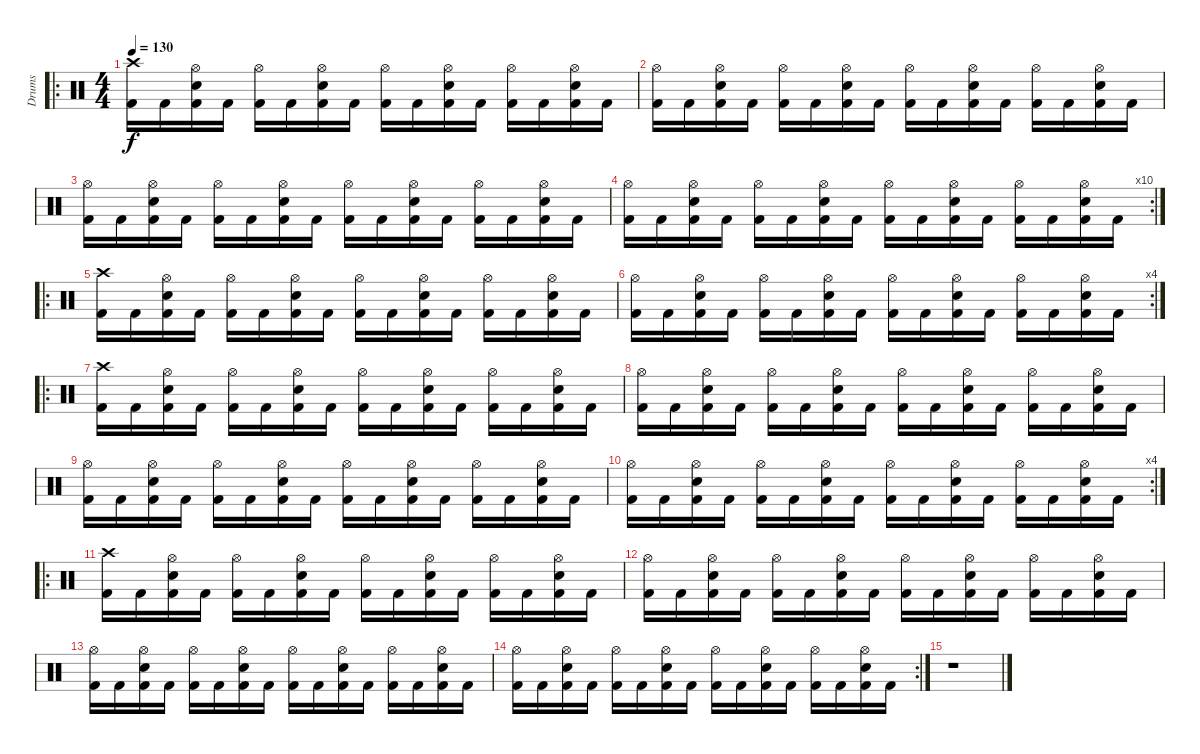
\track ("Drums" "Drums") {instrument percussion}
\staff {score}
\articulation defaults
\ro
\ts (4 4)
\tempo 130
\clef neutral
\ks c
("Kick (hit) 2" "Crash high (hit)").16{dy f} "Kick (hit) 2".16 ("Kick (hit) 2" "Hi-Hat (open)" "Snare (hit) 2").16 "Kick (hit) 2".16 ("Kick (hit) 2" "Hi-Hat (open)").16 "Kick (hit) 2".16 ("Kick (hit) 2" "Hi-Hat (open)" "Snare (hit) 2").16 "Kick (hit) 2".16 ("Kick (hit) 2" "Hi-Hat (open)").16 "Kick (hit) 2".16 ("Kick (hit) 2" "Hi-Hat (open)" "Snare (hit) 2").16 "Kick (hit) 2".16 ("Kick (hit) 2" "Hi-Hat (open)").16 "Kick (hit) 2".16 ("Kick (hit) 2" "Hi-Hat (open)" "Snare (hit) 2").16 "Kick (hit) 2".16 |
("Kick (hit) 2" "Hi-Hat (open)").16 "Kick (hit) 2".16 ("Kick (hit) 2" "Hi-Hat (open)" "Snare (hit) 2").16 "Kick (hit) 2".16 ("Kick (hit) 2" "Hi-Hat (open)").16 "Kick (hit) 2".16 ("Kick (hit) 2" "Hi-Hat (open)" "Snare (hit) 2").16 "Kick (hit) 2".16 ("Kick (hit) 2" "Hi-Hat (open)").16 "Kick (hit) 2".16 ("Kick (hit) 2" "Hi-Hat (open)" "Snare (hit) 2").16 "Kick (hit) 2".16 ("Kick (hit) 2" "Hi-Hat (open)").16 "Kick (hit) 2".16 ("Kick (hit) 2" "Hi-Hat (open)" "Snare (hit) 2").16 "Kick (hit) 2".16 |
("Kick (hit) 2" "Hi-Hat (open)").16 "Kick (hit) 2".16 ("Kick (hit) 2" "Hi-Hat (open)" "Snare (hit) 2").16 "Kick (hit) 2".16 ("Kick (hit) 2" "Hi-Hat (open)").16 "Kick (hit) 2".16 ("Kick (hit) 2" "Hi-Hat (open)" "Snare (hit) 2").16 "Kick (hit) 2".16 ("Kick (hit) 2" "Hi-Hat (open)").16 "Kick (hit) 2".16 ("Kick (hit) 2" "Hi-Hat (open)" "Snare (hit) 2").16 "Kick (hit) 2".16 ("Kick (hit) 2" "Hi-Hat (open)").16 "Kick (hit) 2".16 ("Kick (hit) 2" "Hi-Hat (open)" "Snare (hit) 2").16 "Kick (hit) 2".16 |
\rc 10
("Kick (hit) 2" "Hi-Hat (open)").16 "Kick (hit) 2".16 ("Kick (hit) 2" "Hi-Hat (open)" "Snare (hit) 2").16 "Kick (hit) 2".16 ("Kick (hit) 2" "Hi-Hat (open)").16 "Kick (hit) 2".16 ("Kick (hit) 2" "Hi-Hat (open)" "Snare (hit) 2").16 "Kick (hit) 2".16 ("Kick (hit) 2" "Hi-Hat (open)").16 "Kick (hit) 2".16 ("Kick (hit) 2" "Hi-Hat (open)" "Snare (hit) 2").16 "Kick (hit) 2".16 ("Kick (hit) 2" "Hi-Hat (open)").16 "Kick (hit) 2".16 ("Kick (hit) 2" "Hi-Hat (open)" "Snare (hit) 2").16 "Kick (hit) 2".16 |
\ro
("Kick (hit) 2" "Crash high (hit)").16 "Kick (hit) 2".16 ("Kick (hit) 2" "Hi-Hat (open)" "Snare (hit) 2").16 "Kick (hit) 2".16 ("Kick (hit) 2" "Hi-Hat (open)").16 "Kick (hit) 2".16 ("Kick (hit) 2" "Hi-Hat (open)" "Snare (hit) 2").16 "Kick (hit) 2".16 ("Kick (hit) 2" "Hi-Hat (open)").16 "Kick (hit) 2".16 ("Kick (hit) 2" "Hi-Hat (open)" "Snare (hit) 2").16 "Kick (hit) 2".16 ("Kick (hit) 2" "Hi-Hat (open)").16 "Kick (hit) 2".16 ("Kick (hit) 2" "Hi-Hat (open)" "Snare (hit) 2").16 "Kick (hit) 2".16 |
\rc 4
("Kick (hit) 2" "Hi-Hat (open)").16 "Kick (hit) 2".16 ("Kick (hit) 2" "Hi-Hat (open)" "Snare (hit) 2").16 "Kick (hit) 2".16 ("Kick (hit) 2" "Hi-Hat (open)").16 "Kick (hit) 2".16 ("Kick (hit) 2" "Hi-Hat (open)" "Snare (hit) 2").16 "Kick (hit) 2".16 ("Kick (hit) 2" "Hi-Hat (open)").16 "Kick (hit) 2".16 ("Kick (hit) 2" "Hi-Hat (open)" "Snare (hit) 2").16 "Kick (hit) 2".16 ("Kick (hit) 2" "Hi-Hat (open)").16 "Kick (hit) 2".16 ("Kick (hit) 2" "Hi-Hat (open)" "Snare (hit) 2").16 "Kick (hit) 2".16 |
\ro
("Kick (hit) 2" "Crash high (hit)").16 "Kick (hit) 2".16 ("Kick (hit) 2" "Hi-Hat (open)" "Snare (hit) 2").16 "Kick (hit) 2".16 ("Kick (hit) 2" "Hi-Hat (open)").16 "Kick (hit) 2".16 ("Kick (hit) 2" "Hi-Hat (open)" "Snare (hit) 2").16 "Kick (hit) 2".16 ("Kick (hit) 2" "Hi-Hat (open)").16 "Kick (hit) 2".16 ("Kick (hit) 2" "Hi-Hat (open)" "Snare (hit) 2").16 "Kick (hit) 2".16 ("Kick (hit) 2" "Hi-Hat (open)").16 "Kick (hit) 2".16 ("Kick (hit) 2" "Hi-Hat (open)" "Snare (hit) 2").16 "Kick (hit) 2".16 |
("Kick (hit) 2" "Hi-Hat (open)").16 "Kick (hit) 2".16 ("Kick (hit) 2" "Hi-Hat (open)" "Snare (hit) 2").16 "Kick (hit) 2".16 ("Kick (hit) 2" "Hi-Hat (open)").16 "Kick (hit) 2".16 ("Kick (hit) 2" "Hi-Hat (open)" "Snare (hit) 2").16 "Kick (hit) 2".16 ("Kick (hit) 2" "Hi-Hat (open)").16 "Kick (hit) 2".16 ("Kick (hit) 2" "Hi-Hat (open)" "Snare (hit) 2").16 "Kick (hit) 2".16 ("Kick (hit) 2" "Hi-Hat (open)").16 "Kick (hit) 2".16 ("Kick (hit) 2" "Hi-Hat (open)" "Snare (hit) 2").16 "Kick (hit) 2".16 |
("Kick (hit) 2" "Hi-Hat (open)").16 "Kick (hit) 2".16 ("Kick (hit) 2" "Hi-Hat (open)" "Snare (hit) 2").16 "Kick (hit) 2".16 ("Kick (hit) 2" "Hi-Hat (open)").16 "Kick (hit) 2".16 ("Kick (hit) 2" "Hi-Hat (open)" "Snare (hit) 2").16 "Kick (hit) 2".16 ("Kick (hit) 2" "Hi-Hat (open)").16 "Kick (hit) 2".16 ("Kick (hit) 2" "Hi-Hat (open)" "Snare (hit) 2").16 "Kick (hit) 2".16 ("Kick (hit) 2" "Hi-Hat (open)").16 "Kick (hit) 2".16 ("Kick (hit) 2" "Hi-Hat (open)" "Snare (hit) 2").16 "Kick (hit) 2".16 |
\rc 4
("Kick (hit) 2" "Hi-Hat (open)").16 "Kick (hit) 2".16 ("Kick (hit) 2" "Hi-Hat (open)" "Snare (hit) 2").16 "Kick (hit) 2".16 ("Kick (hit) 2" "Hi-Hat (open)").16 "Kick (hit) 2".16 ("Kick (hit) 2" "Hi-Hat (open)" "Snare (hit) 2").16 "Kick (hit) 2".16 ("Kick (hit) 2" "Hi-Hat (open)").16 "Kick (hit) 2".16 ("Kick (hit) 2" "Hi-Hat (open)" "Snare (hit) 2").16 "Kick (hit) 2".16 ("Kick (hit) 2" "Hi-Hat (open)").16 "Kick (hit) 2".16 ("Kick (hit) 2" "Hi-Hat (open)" "Snare (hit) 2").16 "Kick (hit) 2".16 |
\ro
("Kick (hit) 2" "Crash high (hit)").16 "Kick (hit) 2".16 ("Kick (hit) 2" "Hi-Hat (open)" "Snare (hit) 2").16 "Kick (hit) 2".16 ("Kick (hit) 2" "Hi-Hat (open)").16 "Kick (hit) 2".16 ("Kick (hit) 2" "Hi-Hat (open)" "Snare (hit) 2").16 "Kick (hit) 2".16 ("Kick (hit) 2" "Hi-Hat (open)").16 "Kick (hit) 2".16 ("Kick (hit) 2" "Hi-Hat (open)" "Snare (hit) 2").16 "Kick (hit) 2".16 ("Kick (hit) 2" "Hi-Hat (open)").16 "Kick (hit) 2".16 ("Kick (hit) 2" "Hi-Hat (open)" "Snare (hit) 2").16 "Kick (hit) 2".16 |
("Kick (hit) 2" "Hi-Hat (open)").16 "Kick (hit) 2".16 ("Kick (hit) 2" "Hi-Hat (open)" "Snare (hit) 2").16 "Kick (hit) 2".16 ("Kick (hit) 2" "Hi-Hat (open)").16 "Kick (hit) 2".16 ("Kick (hit) 2" "Hi-Hat (open)" "Snare (hit) 2").16 "Kick (hit) 2".16 ("Kick (hit) 2" "Hi-Hat (open)").16 "Kick (hit) 2".16 ("Kick (hit) 2" "Hi-Hat (open)" "Snare (hit) 2").16 "Kick (hit) 2".16 ("Kick (hit) 2" "Hi-Hat (open)").16 "Kick (hit) 2".16 ("Kick (hit) 2" "Hi-Hat (open)" "Snare (hit) 2").16 "Kick (hit) 2".16 |
("Kick (hit) 2" "Hi-Hat (open)").16 "Kick (hit) 2".16 ("Kick (hit) 2" "Hi-Hat (open)" "Snare (hit) 2").16 "Kick (hit) 2".16 ("Kick (hit) 2" "Hi-Hat (open)").16 "Kick (hit) 2".16 ("Kick (hit) 2" "Hi-Hat (open)" "Snare (hit) 2").16 "Kick (hit) 2".16 ("Kick (hit) 2" "Hi-Hat (open)").16 "Kick (hit) 2".16 ("Kick (hit) 2" "Hi-Hat (open)" "Snare (hit) 2").16 "Kick (hit) 2".16 ("Kick (hit) 2" "Hi-Hat (open)").16 "Kick (hit) 2".16 ("Kick (hit) 2" "Hi-Hat (open)" "Snare (hit) 2").16 "Kick (hit) 2".16 |
\rc 2
("Kick (hit) 2" "Hi-Hat (open)").16 "Kick (hit) 2".16 ("Kick (hit) 2" "Hi-Hat (open)" "Snare (hit) 2").16 "Kick (hit) 2".16 ("Kick (hit) 2" "Hi-Hat (open)").16 "Kick (hit) 2".16 ("Kick (hit) 2" "Hi-Hat (open)" "Snare (hit) 2").16 "Kick (hit) 2".16 ("Kick (hit) 2" "Hi-Hat (open)").16 "Kick (hit) 2".16 ("Kick (hit) 2" "Hi-Hat (open)" "Snare (hit) 2").16 "Kick (hit) 2".16 ("Kick (hit) 2" "Hi-Hat (open)").16 "Kick (hit) 2".16 ("Kick (hit) 2" "Hi-Hat (open)" "Snare (hit) 2").16 "Kick (hit) 2".16 |
r.1
